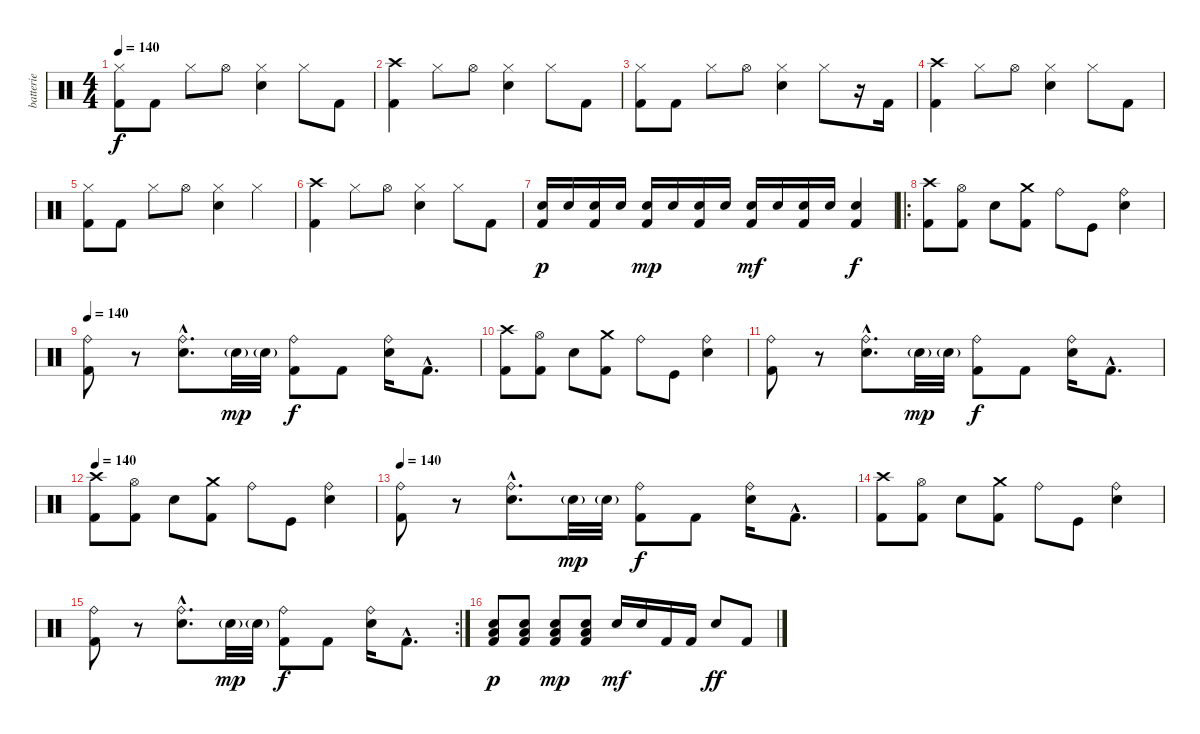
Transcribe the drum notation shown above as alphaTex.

\track ("batterie" "batterie") {instrument percussion}
\staff {score}
\articulation defaults
\ts (4 4)
\tempo 140
\clef neutral
\ks c
("Hi-Hat (closed)" "Kick (hit) 2").8{dy f} "Kick (hit) 2".8 "Hi-Hat (closed)".8 "Hi-Hat (open)".8 ("Hi-Hat (closed)" "Electric Snare (hit)").4 "Hi-Hat (closed)".8 "Kick (hit) 2".8 |
("Crash high (hit)" "Kick (hit) 2").4 "Hi-Hat (closed)".8 "Hi-Hat (open)".8 ("Hi-Hat (closed)" "Electric Snare (hit)").4 "Hi-Hat (closed)".8 "Kick (hit) 2".8 |
("Hi-Hat (closed)" "Kick (hit) 2").8 "Kick (hit) 2".8 "Hi-Hat (closed)".8 "Hi-Hat (open)".8 ("Hi-Hat (closed)" "Electric Snare (hit)").4 "Hi-Hat (closed)".8 r.16 "Kick (hit) 2".16 |
("Crash high (hit)" "Kick (hit) 2").4 "Hi-Hat (closed)".8 "Hi-Hat (open)".8 ("Hi-Hat (closed)" "Electric Snare (hit)").4 "Hi-Hat (closed)".8 "Kick (hit) 2".8 |
("Hi-Hat (closed)" "Kick (hit) 2").8 "Kick (hit) 2".8 "Hi-Hat (closed)".8 "Hi-Hat (open)".8 ("Hi-Hat (closed)" "Electric Snare (hit)").4 "Hi-Hat (closed)".4 |
("Crash high (hit)" "Kick (hit) 2").4 "Hi-Hat (closed)".8 "Hi-Hat (open)".8 ("Hi-Hat (closed)" "Electric Snare (hit)").4 "Hi-Hat (closed)".8 "Kick (hit) 2".8 |
("Electric Snare (hit)" "Kick (hit) 2").16{dy p} "Electric Snare (hit)".16 ("Electric Snare (hit)" "Kick (hit) 2").16 "Electric Snare (hit)".16 ("Electric Snare (hit)" "Kick (hit) 2").16{dy mp} "Electric Snare (hit)".16 ("Electric Snare (hit)" "Kick (hit) 2").16 "Electric Snare (hit)".16 ("Electric Snare (hit)" "Kick (hit) 2").16{dy mf} "Electric Snare (hit)".16 ("Electric Snare (hit)" "Kick (hit) 2").16 "Electric Snare (hit)".16 ("Electric Snare (hit)" "Kick (hit) 2").4{dy f} |
\ro
("Crash high (hit)" "Kick (hit) 2").8 ("Hi-Hat (open)" "Kick (hit) 2").8 "Electric Snare (hit)".8 ("Crash medium (hit)" "Kick (hit) 2").8 "Ride (bell)".8 "Kick (hit)".8 ("Ride (bell)" "Electric Snare (hit)").4 |
\tempo 140
("Ride (bell)" "Kick (hit) 2").8 r.8 ("Ride (bell)"{hac} "Electric Snare (hit)"{hac}).8{d} "Electric Snare (hit)"{g}.32{dy mp} "Electric Snare (hit)"{g}.32 ("Ride (bell)" "Kick (hit) 2").8{dy f} "Kick (hit) 2".8 ("Ride (bell)" "Electric Snare (hit)").16 "Kick (hit) 2"{hac}.8{d} |
("Crash high (hit)" "Kick (hit) 2").8 ("Hi-Hat (open)" "Kick (hit) 2").8 "Electric Snare (hit)".8 ("Crash medium (hit)" "Kick (hit) 2").8 "Ride (bell)".8 "Kick (hit)".8 ("Ride (bell)" "Electric Snare (hit)").4 |
("Ride (bell)" "Kick (hit) 2").8 r.8 ("Ride (bell)"{hac} "Electric Snare (hit)"{hac}).8{d} "Electric Snare (hit)"{g}.32{dy mp} "Electric Snare (hit)"{g}.32 ("Ride (bell)" "Kick (hit) 2").8{dy f} "Kick (hit) 2".8 ("Ride (bell)" "Electric Snare (hit)").16 "Kick (hit) 2"{hac}.8{d} |
\tempo 140
("Crash high (hit)" "Kick (hit) 2").8 ("Hi-Hat (open)" "Kick (hit) 2").8 "Electric Snare (hit)".8 ("Crash medium (hit)" "Kick (hit) 2").8 "Ride (bell)".8 "Kick (hit)".8 ("Ride (bell)" "Electric Snare (hit)").4 |
\tempo 140
("Ride (bell)" "Kick (hit) 2").8 r.8 ("Ride (bell)"{hac} "Electric Snare (hit)"{hac}).8{d} "Electric Snare (hit)"{g}.32{dy mp} "Electric Snare (hit)"{g}.32 ("Ride (bell)" "Kick (hit) 2").8{dy f} "Kick (hit) 2".8 ("Ride (bell)" "Electric Snare (hit)").16 "Kick (hit) 2"{hac}.8{d} |
("Crash high (hit)" "Kick (hit) 2").8 ("Hi-Hat (open)" "Kick (hit) 2").8 "Electric Snare (hit)".8 ("Crash medium (hit)" "Kick (hit) 2").8 "Ride (bell)".8 "Kick (hit)".8 ("Ride (bell)" "Electric Snare (hit)").4 |
\rc 2
("Ride (bell)" "Kick (hit) 2").8 r.8 ("Ride (bell)"{hac} "Electric Snare (hit)"{hac}).8{d} "Electric Snare (hit)"{g}.32{dy mp} "Electric Snare (hit)"{g}.32 ("Ride (bell)" "Kick (hit) 2").8{dy f} "Kick (hit) 2".8 ("Ride (bell)" "Electric Snare (hit)").16 "Kick (hit) 2"{hac}.8{d} |
("Electric Snare (hit)" "Low Floor Tom (hit)" "Kick (hit) 2").8{dy p} ("Electric Snare (hit)" "Low Floor Tom (hit)" "Kick (hit) 2").8 ("Electric Snare (hit)" "Low Floor Tom (hit)" "Kick (hit) 2").8{dy mp} ("Electric Snare (hit)" "Low Floor Tom (hit)" "Kick (hit) 2").8 "Electric Snare (hit)".16{dy mf} "Electric Snare (hit)".16 "Kick (hit) 2".16 "Kick (hit) 2".16 "Electric Snare (hit)".8{dy ff} "Kick (hit) 2".8
